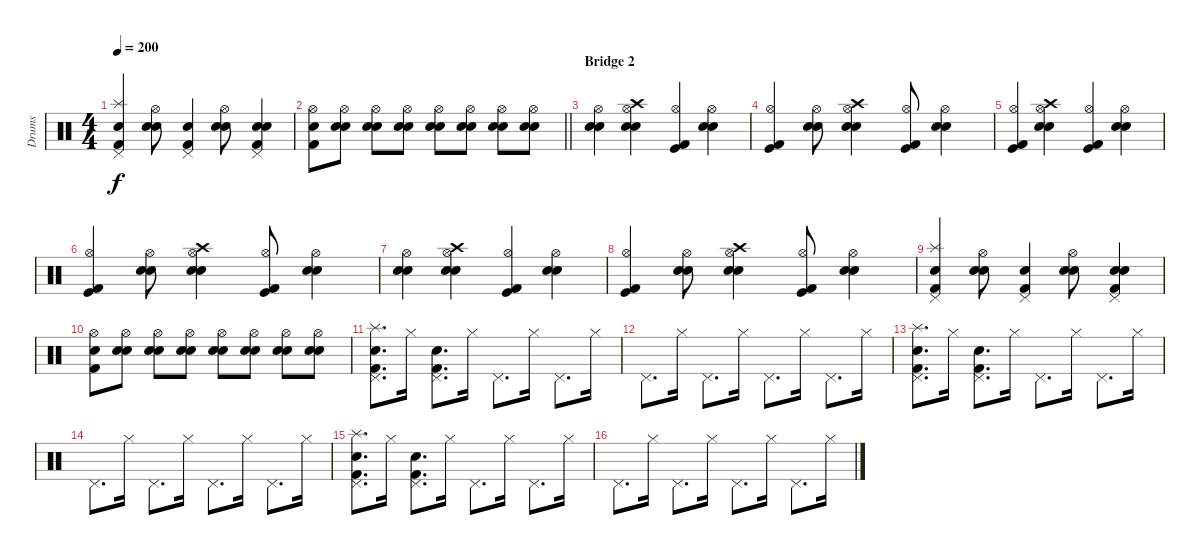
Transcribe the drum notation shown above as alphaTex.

\track ("Drums" "Drums") {instrument percussion}
\staff {score}
\articulation defaults
\ts (4 4)
\tempo 200
\clef neutral
\ks c
("Pedal Hi-Hat (hit)" "Splash (hit)" "Snare (hit) 2" "Kick (hit) 2").4{dy f} ("Hi-Hat (open)" "Snare (hit) 2" "Electric Snare (hit)").8 ("Pedal Hi-Hat (hit)" "Snare (hit) 2" "Kick (hit) 2").4 ("Hi-Hat (open)" "Snare (hit) 2" "Electric Snare (hit)").8 ("Pedal Hi-Hat (hit)" "Snare (hit) 2" "Electric Snare (hit)" "Kick (hit) 2").4 |
\barLineRight lightlight
("Hi-Hat (open)" "Snare (hit) 2" "Kick (hit) 2").8 ("Hi-Hat (open)" "Snare (hit) 2" "Electric Snare (hit)").8 ("Hi-Hat (open)" "Snare (hit) 2" "Electric Snare (hit)").8 ("Hi-Hat (open)" "Snare (hit) 2" "Electric Snare (hit)").8 ("Hi-Hat (open)" "Snare (hit) 2" "Electric Snare (hit)").8 ("Hi-Hat (open)" "Snare (hit) 2" "Electric Snare (hit)").8 ("Hi-Hat (open)" "Snare (hit) 2" "Electric Snare (hit)").8 ("Hi-Hat (open)" "Snare (hit) 2" "Electric Snare (hit)").8 |
\section ("" "Bridge 2")
("Hi-Hat (open)" "Snare (hit) 2" "Electric Snare (hit)").4 ("Hi-Hat (open)" "Crash high (hit)" "Snare (hit) 2" "Electric Snare (hit)").4 ("Hi-Hat (open)" "Kick (hit)" "Kick (hit) 2").4 ("Hi-Hat (open)" "Snare (hit) 2" "Electric Snare (hit)").4 |
("Hi-Hat (open)" "Kick (hit)" "Kick (hit) 2").4 ("Hi-Hat (open)" "Snare (hit) 2" "Electric Snare (hit)").8 ("Hi-Hat (open)" "Crash high (hit)" "Snare (hit) 2" "Electric Snare (hit)").4 ("Hi-Hat (open)" "Kick (hit)" "Kick (hit) 2").8 ("Hi-Hat (open)" "Snare (hit) 2" "Electric Snare (hit)").4 |
("Hi-Hat (open)" "Kick (hit)" "Kick (hit) 2").4 ("Hi-Hat (open)" "Crash high (hit)" "Snare (hit) 2" "Electric Snare (hit)").4 ("Hi-Hat (open)" "Kick (hit)" "Kick (hit) 2").4 ("Hi-Hat (open)" "Snare (hit) 2" "Electric Snare (hit)").4 |
("Hi-Hat (open)" "Kick (hit)" "Kick (hit) 2").4 ("Hi-Hat (open)" "Snare (hit) 2" "Electric Snare (hit)").8 ("Hi-Hat (open)" "Crash high (hit)" "Snare (hit) 2" "Electric Snare (hit)").4 ("Hi-Hat (open)" "Kick (hit)" "Kick (hit) 2").8 ("Hi-Hat (open)" "Snare (hit) 2" "Electric Snare (hit)").4 |
("Hi-Hat (open)" "Snare (hit) 2" "Electric Snare (hit)").4 ("Hi-Hat (open)" "Crash high (hit)" "Snare (hit) 2" "Electric Snare (hit)").4 ("Hi-Hat (open)" "Kick (hit)" "Kick (hit) 2").4 ("Hi-Hat (open)" "Snare (hit) 2" "Electric Snare (hit)").4 |
("Hi-Hat (open)" "Kick (hit)" "Kick (hit) 2").4 ("Hi-Hat (open)" "Snare (hit) 2" "Electric Snare (hit)").8 ("Hi-Hat (open)" "Crash high (hit)" "Snare (hit) 2" "Electric Snare (hit)").4 ("Hi-Hat (open)" "Kick (hit)" "Kick (hit) 2").8 ("Hi-Hat (open)" "Snare (hit) 2" "Electric Snare (hit)").4 |
("Pedal Hi-Hat (hit)" "Splash (hit)" "Snare (hit) 2" "Kick (hit) 2").4 ("Hi-Hat (open)" "Snare (hit) 2" "Electric Snare (hit)").8 ("Pedal Hi-Hat (hit)" "Snare (hit) 2" "Kick (hit) 2").4 ("Hi-Hat (open)" "Snare (hit) 2" "Electric Snare (hit)").8 ("Pedal Hi-Hat (hit)" "Snare (hit) 2" "Electric Snare (hit)" "Kick (hit) 2").4 |
("Hi-Hat (open)" "Snare (hit) 2" "Kick (hit) 2").8 ("Hi-Hat (open)" "Snare (hit) 2" "Electric Snare (hit)").8 ("Hi-Hat (open)" "Snare (hit) 2" "Electric Snare (hit)").8 ("Hi-Hat (open)" "Snare (hit) 2" "Electric Snare (hit)").8 ("Hi-Hat (open)" "Snare (hit) 2" "Electric Snare (hit)").8 ("Hi-Hat (open)" "Snare (hit) 2" "Electric Snare (hit)").8 ("Hi-Hat (open)" "Snare (hit) 2" "Electric Snare (hit)").8 ("Hi-Hat (open)" "Snare (hit) 2" "Electric Snare (hit)").8 |
("Pedal Hi-Hat (hit)" "Splash (hit)" "Snare (hit) 2" "Kick (hit) 2").8{d} "Hi-Hat (closed)".16 ("Pedal Hi-Hat (hit)" "Snare (hit) 2" "Kick (hit) 2").8{d} "Hi-Hat (closed)".16 "Pedal Hi-Hat (hit)".8{d} "Hi-Hat (closed)".16 "Pedal Hi-Hat (hit)".8{d} "Hi-Hat (closed)".16 |
"Pedal Hi-Hat (hit)".8{d} "Hi-Hat (closed)".16 "Pedal Hi-Hat (hit)".8{d} "Hi-Hat (closed)".16 "Pedal Hi-Hat (hit)".8{d} "Hi-Hat (closed)".16 "Pedal Hi-Hat (hit)".8{d} "Hi-Hat (closed)".16 |
("Pedal Hi-Hat (hit)" "Splash (hit)" "Snare (hit) 2" "Kick (hit) 2").8{d} "Hi-Hat (closed)".16 ("Pedal Hi-Hat (hit)" "Snare (hit) 2" "Kick (hit) 2").8{d} "Hi-Hat (closed)".16 "Pedal Hi-Hat (hit)".8{d} "Hi-Hat (closed)".16 "Pedal Hi-Hat (hit)".8{d} "Hi-Hat (closed)".16 |
"Pedal Hi-Hat (hit)".8{d} "Hi-Hat (closed)".16 "Pedal Hi-Hat (hit)".8{d} "Hi-Hat (closed)".16 "Pedal Hi-Hat (hit)".8{d} "Hi-Hat (closed)".16 "Pedal Hi-Hat (hit)".8{d} "Hi-Hat (closed)".16 |
("Pedal Hi-Hat (hit)" "Splash (hit)" "Snare (hit) 2" "Kick (hit) 2").8{d} "Hi-Hat (closed)".16 ("Pedal Hi-Hat (hit)" "Snare (hit) 2" "Kick (hit) 2").8{d} "Hi-Hat (closed)".16 "Pedal Hi-Hat (hit)".8{d} "Hi-Hat (closed)".16 "Pedal Hi-Hat (hit)".8{d} "Hi-Hat (closed)".16 |
"Pedal Hi-Hat (hit)".8{d} "Hi-Hat (closed)".16 "Pedal Hi-Hat (hit)".8{d} "Hi-Hat (closed)".16 "Pedal Hi-Hat (hit)".8{d} "Hi-Hat (closed)".16 "Pedal Hi-Hat (hit)".8{d} "Hi-Hat (closed)".16
